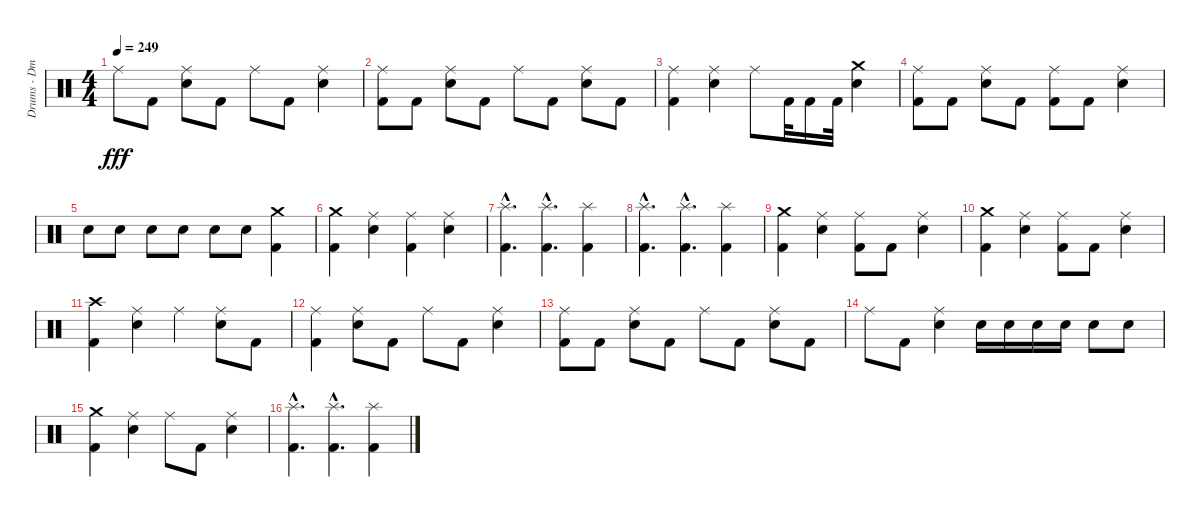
\track ("Drums - Dmitriy Krivenkov" "Drums - Dm") {instrument percussion}
\staff {score}
\articulation defaults
\ts (4 4)
\tempo 249
\clef neutral
\ks c "Ride (middle)".8{dy fff} "Kick (hit) 2".8
("Electric Snare (hit)" "Ride (middle)").8 "Kick (hit) 2".8 "Ride (middle)".8 "Kick (hit) 2".8 ("Electric Snare (hit)" "Ride (middle)").4 |
("Kick (hit) 2" "Ride (middle)").8 "Kick (hit) 2".8 ("Electric Snare (hit)" "Ride (middle)").8 "Kick (hit) 2".8 "Ride (middle)".8 "Kick (hit) 2".8 ("Electric Snare (hit)" "Ride (middle)").8 "Kick (hit) 2".8 |
("Kick (hit) 2" "Ride (middle)").4 ("Electric Snare (hit)" "Ride (middle)").4 "Ride (middle)".8 "Kick (hit) 2".32 "Kick (hit) 2".16 "Kick (hit) 2".32 ("Electric Snare (hit)" "Crash medium (hit)").4 |
("Kick (hit) 2" "Ride (middle)").8 "Kick (hit) 2".8 ("Electric Snare (hit)" "Ride (middle)").8 "Kick (hit) 2".8 ("Kick (hit) 2" "Ride (middle)").8 "Kick (hit) 2".8 ("Electric Snare (hit)" "Ride (middle)").4 |
"Electric Snare (hit)".8 "Electric Snare (hit)".8 "Electric Snare (hit)".8 "Electric Snare (hit)".8 "Electric Snare (hit)".8 "Electric Snare (hit)".8 ("Kick (hit) 2" "Crash medium (hit)").4 |
("Kick (hit) 2" "Crash medium (hit)").4 ("Electric Snare (hit)" "Ride (middle)").4 ("Kick (hit) 2" "Ride (middle)").4 ("Electric Snare (hit)" "Ride (middle)").4 |
("Kick (hit) 2"{hac} "Splash (hit)"{hac}).4{d} ("Kick (hit) 2"{hac} "Splash (hit)"{hac}).4{d} ("Kick (hit) 2" "Splash (hit)").4 |
("Kick (hit) 2"{hac} "Splash (hit)"{hac}).4{d} ("Kick (hit) 2"{hac} "Splash (hit)"{hac}).4{d} ("Kick (hit) 2" "Splash (hit)").4 |
("Kick (hit) 2" "Crash medium (hit)").4 ("Electric Snare (hit)" "Ride (middle)").4 ("Kick (hit) 2" "Ride (middle)").8 "Kick (hit) 2".8 ("Electric Snare (hit)" "Ride (middle)").4 |
("Kick (hit) 2" "Crash medium (hit)").4 ("Electric Snare (hit)" "Ride (middle)").4 ("Kick (hit) 2" "Ride (middle)").8 "Kick (hit) 2".8 ("Electric Snare (hit)" "Ride (middle)").4 |
("Kick (hit) 2" "Crash high (hit)").4 ("Electric Snare (hit)" "Ride (middle)").4 "Ride (middle)".4 ("Electric Snare (hit)" "Ride (middle)").8 "Kick (hit) 2".8 |
("Kick (hit) 2" "Ride (middle)").4 ("Electric Snare (hit)" "Ride (middle)").8 "Kick (hit) 2".8 "Ride (middle)".8 "Kick (hit) 2".8 ("Electric Snare (hit)" "Ride (middle)").4 |
("Kick (hit) 2" "Ride (middle)").8 "Kick (hit) 2".8 ("Electric Snare (hit)" "Ride (middle)").8 "Kick (hit) 2".8 "Ride (middle)".8 "Kick (hit) 2".8 ("Electric Snare (hit)" "Ride (middle)").8 "Kick (hit) 2".8 |
"Ride (middle)".8 "Kick (hit) 2".8 ("Electric Snare (hit)" "Ride (middle)").4 "Electric Snare (hit)".16 "Electric Snare (hit)".16 "Electric Snare (hit)".16 "Electric Snare (hit)".16 "Electric Snare (hit)".8 "Electric Snare (hit)".8 |
("Kick (hit) 2" "Crash medium (hit)").4 ("Electric Snare (hit)" "Ride (middle)").4 "Ride (middle)".8 "Kick (hit) 2".8 ("Electric Snare (hit)" "Ride (middle)").4 |
("Kick (hit) 2"{hac} "Splash (hit)"{hac}).4{d} ("Kick (hit) 2"{hac} "Splash (hit)"{hac}).4{d} ("Kick (hit) 2" "Splash (hit)").4
